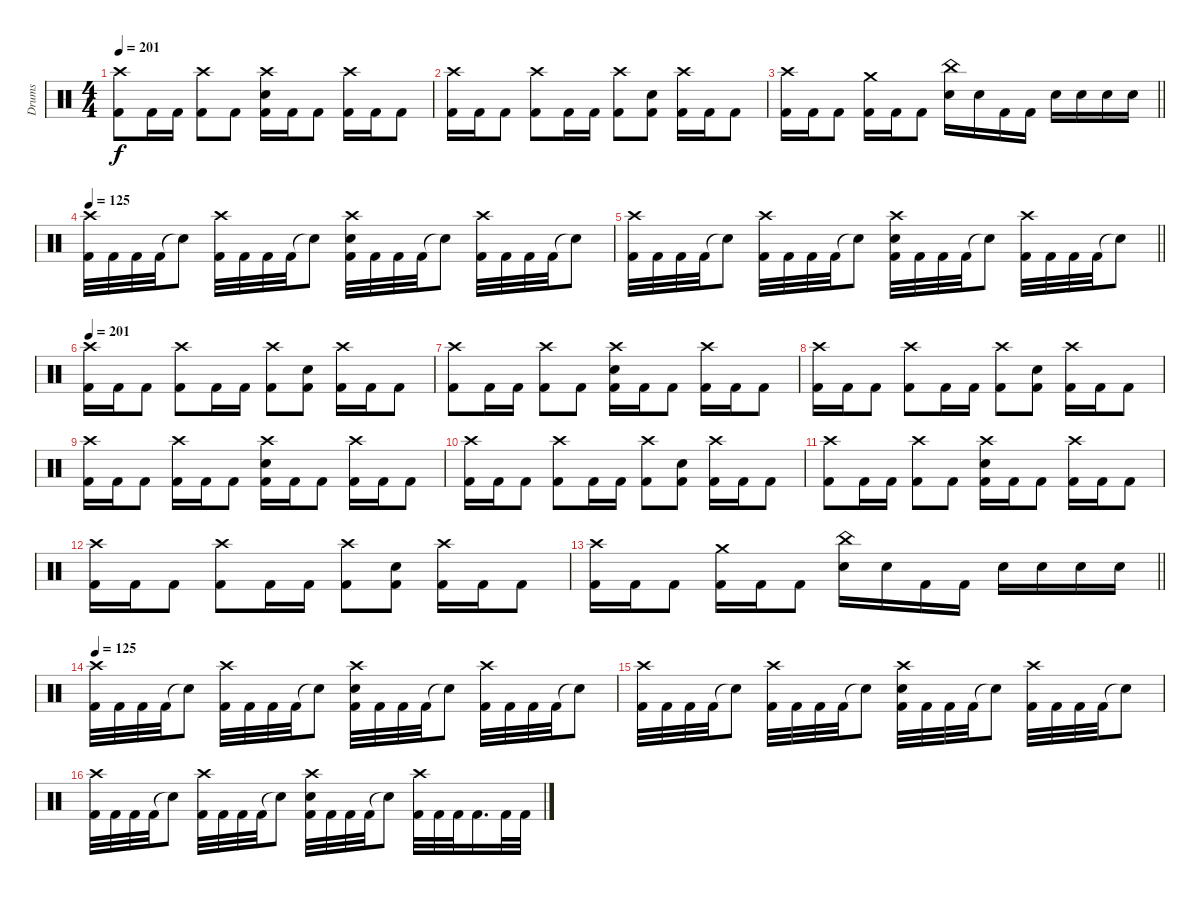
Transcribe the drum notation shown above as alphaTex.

\track ("Drums" "Drums") {instrument percussion}
\staff
\articulation defaults
\ts (4 4)
\tempo 201
\clef neutral
\ks c
("Crash high (hit)" "Kick (hit) 2").8{dy f} "Kick (hit) 2".16 "Kick (hit) 2".16 ("Crash high (hit)" "Kick (hit) 2").8 "Kick (hit) 2".8 ("Crash high (hit)" "Electric Snare (hit)" "Kick (hit) 2").16 "Kick (hit) 2".16 "Kick (hit) 2".8 ("Crash high (hit)" "Kick (hit) 2").16 "Kick (hit) 2".16 "Kick (hit) 2".8 |
("Crash high (hit)" "Kick (hit) 2").16 "Kick (hit) 2".16 "Kick (hit) 2".8 ("Crash high (hit)" "Kick (hit) 2").8 "Kick (hit) 2".16 "Kick (hit) 2".16 ("Crash high (hit)" "Kick (hit) 2").8 ("Electric Snare (hit)" "Kick (hit) 2").8 ("Crash high (hit)" "Kick (hit) 2").16 "Kick (hit) 2".16 "Kick (hit) 2".8 |
\barLineRight lightlight
("Crash high (hit)" "Kick (hit) 2").16 "Kick (hit) 2".16 "Kick (hit) 2".8 ("Crash medium (hit)" "Kick (hit) 2").16 "Kick (hit) 2".16 "Kick (hit) 2".8 ("China (hit)" "Electric Snare (hit)").16 "Electric Snare (hit)".16 "Kick (hit) 2".16 "Kick (hit) 2".16 "Electric Snare (hit)".16 "Electric Snare (hit)".16 "Electric Snare (hit)".16 "Electric Snare (hit)".16 |
\tempo 125
("Crash high (hit)" "Kick (hit) 2").32 "Kick (hit) 2".32 "Kick (hit) 2".32 "Kick (hit) 2".32 "Snare (hit)"{t}.8 ("Crash high (hit)" "Kick (hit) 2").32 "Kick (hit) 2".32 "Kick (hit) 2".32 "Kick (hit) 2".32 "Snare (hit)"{t}.8 ("Crash high (hit)" "Electric Snare (hit)" "Kick (hit) 2").32 "Kick (hit) 2".32 "Kick (hit) 2".32 "Kick (hit) 2".32 "Snare (hit)"{t}.8 ("Crash high (hit)" "Kick (hit) 2").32 "Kick (hit) 2".32 "Kick (hit) 2".32 "Kick (hit) 2".32 "Snare (hit)"{t}.8 |
\barLineRight lightlight
("Crash high (hit)" "Kick (hit) 2").32 "Kick (hit) 2".32 "Kick (hit) 2".32 "Kick (hit) 2".32 "Snare (hit)"{t}.8 ("Crash high (hit)" "Kick (hit) 2").32 "Kick (hit) 2".32 "Kick (hit) 2".32 "Kick (hit) 2".32 "Snare (hit)"{t}.8 ("Crash high (hit)" "Electric Snare (hit)" "Kick (hit) 2").32 "Kick (hit) 2".32 "Kick (hit) 2".32 "Kick (hit) 2".32 "Snare (hit)"{t}.8 ("Crash high (hit)" "Kick (hit) 2").32 "Kick (hit) 2".32 "Kick (hit) 2".32 "Kick (hit) 2".32 "Snare (hit)"{t}.8 |
\tempo 201
("Crash high (hit)" "Kick (hit) 2").16 "Kick (hit) 2".16 "Kick (hit) 2".8 ("Crash high (hit)" "Kick (hit) 2").8 "Kick (hit) 2".16 "Kick (hit) 2".16 ("Crash high (hit)" "Kick (hit) 2").8 ("Electric Snare (hit)" "Kick (hit) 2").8 ("Crash high (hit)" "Kick (hit) 2").16 "Kick (hit) 2".16 "Kick (hit) 2".8 |
("Crash high (hit)" "Kick (hit) 2").8 "Kick (hit) 2".16 "Kick (hit) 2".16 ("Crash high (hit)" "Kick (hit) 2").8 "Kick (hit) 2".8 ("Crash high (hit)" "Electric Snare (hit)" "Kick (hit) 2").16 "Kick (hit) 2".16 "Kick (hit) 2".8 ("Crash high (hit)" "Kick (hit) 2").16 "Kick (hit) 2".16 "Kick (hit) 2".8 |
("Crash high (hit)" "Kick (hit) 2").16 "Kick (hit) 2".16 "Kick (hit) 2".8 ("Crash high (hit)" "Kick (hit) 2").8 "Kick (hit) 2".16 "Kick (hit) 2".16 ("Crash high (hit)" "Kick (hit) 2").8 ("Electric Snare (hit)" "Kick (hit) 2").8 ("Crash high (hit)" "Kick (hit) 2").16 "Kick (hit) 2".16 "Kick (hit) 2".8 |
("Crash high (hit)" "Kick (hit) 2").16 "Kick (hit) 2".16 "Kick (hit) 2".8 ("Crash high (hit)" "Kick (hit) 2").16 "Kick (hit) 2".16 "Kick (hit) 2".8 ("Crash high (hit)" "Electric Snare (hit)" "Kick (hit) 2").16 "Kick (hit) 2".16 "Kick (hit) 2".8 ("Crash high (hit)" "Kick (hit) 2").16 "Kick (hit) 2".16 "Kick (hit) 2".8 |
("Crash high (hit)" "Kick (hit) 2").16 "Kick (hit) 2".16 "Kick (hit) 2".8 ("Crash high (hit)" "Kick (hit) 2").8 "Kick (hit) 2".16 "Kick (hit) 2".16 ("Crash high (hit)" "Kick (hit) 2").8 ("Electric Snare (hit)" "Kick (hit) 2").8 ("Crash high (hit)" "Kick (hit) 2").16 "Kick (hit) 2".16 "Kick (hit) 2".8 |
("Crash high (hit)" "Kick (hit) 2").8 "Kick (hit) 2".16 "Kick (hit) 2".16 ("Crash high (hit)" "Kick (hit) 2").8 "Kick (hit) 2".8 ("Crash high (hit)" "Electric Snare (hit)" "Kick (hit) 2").16 "Kick (hit) 2".16 "Kick (hit) 2".8 ("Crash high (hit)" "Kick (hit) 2").16 "Kick (hit) 2".16 "Kick (hit) 2".8 |
("Crash high (hit)" "Kick (hit) 2").16 "Kick (hit) 2".16 "Kick (hit) 2".8 ("Crash high (hit)" "Kick (hit) 2").8 "Kick (hit) 2".16 "Kick (hit) 2".16 ("Crash high (hit)" "Kick (hit) 2").8 ("Electric Snare (hit)" "Kick (hit) 2").8 ("Crash high (hit)" "Kick (hit) 2").16 "Kick (hit) 2".16 "Kick (hit) 2".8 |
\barLineRight lightlight
("Crash high (hit)" "Kick (hit) 2").16 "Kick (hit) 2".16 "Kick (hit) 2".8 ("Crash medium (hit)" "Kick (hit) 2").16 "Kick (hit) 2".16 "Kick (hit) 2".8 ("China (hit)" "Electric Snare (hit)").16 "Electric Snare (hit)".16 "Kick (hit) 2".16 "Kick (hit) 2".16 "Electric Snare (hit)".16 "Electric Snare (hit)".16 "Electric Snare (hit)".16 "Electric Snare (hit)".16 |
\section ("" "")
\tempo 125
("Crash high (hit)" "Kick (hit) 2").32 "Kick (hit) 2".32 "Kick (hit) 2".32 "Kick (hit) 2".32 "Snare (hit)"{t}.8 ("Crash high (hit)" "Kick (hit) 2").32 "Kick (hit) 2".32 "Kick (hit) 2".32 "Kick (hit) 2".32 "Snare (hit)"{t}.8 ("Crash high (hit)" "Electric Snare (hit)" "Kick (hit) 2").32 "Kick (hit) 2".32 "Kick (hit) 2".32 "Kick (hit) 2".32 "Snare (hit)"{t}.8 ("Crash high (hit)" "Kick (hit) 2").32 "Kick (hit) 2".32 "Kick (hit) 2".32 "Kick (hit) 2".32 "Snare (hit)"{t}.8 |
("Crash high (hit)" "Kick (hit) 2").32 "Kick (hit) 2".32 "Kick (hit) 2".32 "Kick (hit) 2".32 "Snare (hit)"{t}.8 ("Crash high (hit)" "Kick (hit) 2").32 "Kick (hit) 2".32 "Kick (hit) 2".32 "Kick (hit) 2".32 "Snare (hit)"{t}.8 ("Crash high (hit)" "Electric Snare (hit)" "Kick (hit) 2").32 "Kick (hit) 2".32 "Kick (hit) 2".32 "Kick (hit) 2".32 "Snare (hit)"{t}.8 ("Crash high (hit)" "Kick (hit) 2").32 "Kick (hit) 2".32 "Kick (hit) 2".32 "Kick (hit) 2".32 "Snare (hit)"{t}.8 |
("Crash high (hit)" "Kick (hit) 2").32 "Kick (hit) 2".32 "Kick (hit) 2".32 "Kick (hit) 2".32 "Snare (hit)"{t}.8 ("Crash high (hit)" "Kick (hit) 2").32 "Kick (hit) 2".32 "Kick (hit) 2".32 "Kick (hit) 2".32 "Snare (hit)"{t}.8 ("Crash high (hit)" "Electric Snare (hit)" "Kick (hit) 2").32 "Kick (hit) 2".32 "Kick (hit) 2".32 "Kick (hit) 2".32 "Snare (hit)"{t}.8 ("Crash high (hit)" "Kick (hit) 2").32 "Kick (hit) 2".32 "Kick (hit) 2".32 "Kick (hit) 2".16{d} "Kick (hit) 2".32 "Kick (hit) 2".32
